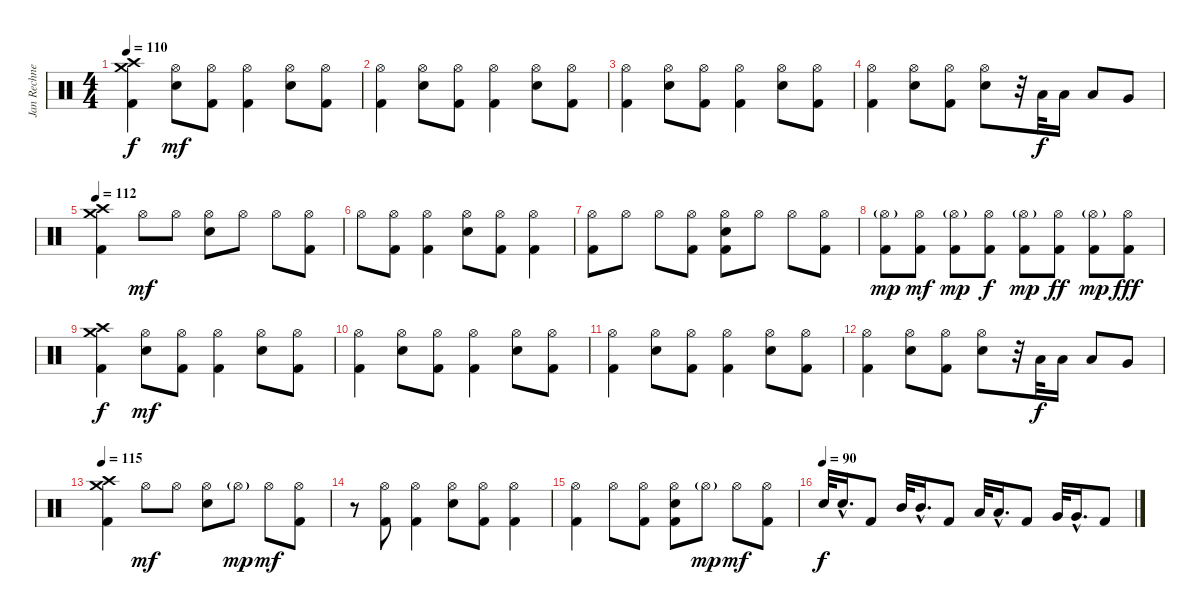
\track ("Jan Rechnerger" "Jan Rechne") {instrument percussion}
\staff {score}
\articulation defaults
\ts (4 4)
\tempo 110
\clef neutral
\ks c
("Crash high (hit)" "Crash medium (hit)" "Kick (hit) 2").4{dy f volume 16} ("Hi-Hat (open)" "Snare (hit) 2").8{dy mf} ("Hi-Hat (open)" "Kick (hit) 2").8 ("Hi-Hat (open)" "Kick (hit) 2").4 ("Hi-Hat (open)" "Snare (hit) 2").8 ("Hi-Hat (open)" "Kick (hit) 2").8 |
("Hi-Hat (open)" "Kick (hit) 2").4 ("Hi-Hat (open)" "Snare (hit) 2").8 ("Hi-Hat (open)" "Kick (hit) 2").8 ("Hi-Hat (open)" "Kick (hit) 2").4 ("Hi-Hat (open)" "Snare (hit) 2").8 ("Hi-Hat (open)" "Kick (hit) 2").8 |
("Hi-Hat (open)" "Kick (hit) 2").4 ("Hi-Hat (open)" "Snare (hit) 2").8 ("Hi-Hat (open)" "Kick (hit) 2").8 ("Hi-Hat (open)" "Kick (hit) 2").4 ("Hi-Hat (open)" "Snare (hit) 2").8 ("Hi-Hat (open)" "Kick (hit) 2").8 |
("Hi-Hat (open)" "Kick (hit) 2").4 ("Hi-Hat (open)" "Snare (hit) 2").8 ("Hi-Hat (open)" "Kick (hit) 2").8 ("Hi-Hat (open)" "Snare (hit) 2").8 r.32 "Low Tom (hit)".32{dy f} "Low Tom (hit)".16 "Low Tom (hit)".8 "Very Low Tom (hit)".8 |
\tempo 112
("Crash high (hit)" "Crash medium (hit)" "Kick (hit) 2").4 "Hi-Hat (open)".8{dy mf} "Hi-Hat (open)".8 ("Hi-Hat (open)" "Snare (hit) 2").8 "Hi-Hat (open)".8 "Hi-Hat (open)".8 ("Hi-Hat (open)" "Kick (hit) 2").8 |
"Hi-Hat (open)".8 ("Hi-Hat (open)" "Kick (hit) 2").8 ("Hi-Hat (open)" "Kick (hit) 2").4 ("Hi-Hat (open)" "Snare (hit) 2").8 ("Hi-Hat (open)" "Kick (hit) 2").8 ("Hi-Hat (open)" "Kick (hit) 2").4 |
("Hi-Hat (open)" "Kick (hit) 2").8 "Hi-Hat (open)".8 "Hi-Hat (open)".8 ("Hi-Hat (open)" "Kick (hit) 2").8 ("Hi-Hat (open)" "Snare (hit) 2" "Kick (hit) 2").8 "Hi-Hat (open)".8 "Hi-Hat (open)".8 ("Hi-Hat (open)" "Kick (hit) 2").8 |
("Hi-Hat (open)"{g} "Kick (hit) 2").8{dy mp} ("Hi-Hat (open)" "Kick (hit) 2").8{dy mf} ("Hi-Hat (open)"{g} "Kick (hit) 2").8{dy mp} ("Hi-Hat (open)" "Kick (hit) 2").8{dy f} ("Hi-Hat (open)"{g} "Kick (hit) 2").8{dy mp} ("Hi-Hat (open)" "Kick (hit) 2").8{dy ff} ("Hi-Hat (open)"{g} "Kick (hit) 2").8{dy mp} ("Hi-Hat (open)" "Kick (hit) 2").8{dy fff} |
("Crash high (hit)" "Crash medium (hit)" "Kick (hit) 2").4{dy f} ("Hi-Hat (open)" "Snare (hit) 2").8{dy mf} ("Hi-Hat (open)" "Kick (hit) 2").8 ("Hi-Hat (open)" "Kick (hit) 2").4 ("Hi-Hat (open)" "Snare (hit) 2").8 ("Hi-Hat (open)" "Kick (hit) 2").8 |
("Hi-Hat (open)" "Kick (hit) 2").4 ("Hi-Hat (open)" "Snare (hit) 2").8 ("Hi-Hat (open)" "Kick (hit) 2").8 ("Hi-Hat (open)" "Kick (hit) 2").4 ("Hi-Hat (open)" "Snare (hit) 2").8 ("Hi-Hat (open)" "Kick (hit) 2").8 |
("Hi-Hat (open)" "Kick (hit) 2").4 ("Hi-Hat (open)" "Snare (hit) 2").8 ("Hi-Hat (open)" "Kick (hit) 2").8 ("Hi-Hat (open)" "Kick (hit) 2").4 ("Hi-Hat (open)" "Snare (hit) 2").8 ("Hi-Hat (open)" "Kick (hit) 2").8 |
("Hi-Hat (open)" "Kick (hit) 2").4 ("Hi-Hat (open)" "Snare (hit) 2").8 ("Hi-Hat (open)" "Kick (hit) 2").8 ("Hi-Hat (open)" "Snare (hit) 2").8 r.32 "Low Tom (hit)".32{dy f} "Low Tom (hit)".16 "Low Tom (hit)".8 "Very Low Tom (hit)".8 |
\tempo 115
("Crash high (hit)" "Crash medium (hit)" "Kick (hit) 2").4 "Hi-Hat (open)".8{dy mf} "Hi-Hat (open)".8 ("Hi-Hat (open)" "Snare (hit) 2").8 "Hi-Hat (open)"{g}.8{dy mp} "Hi-Hat (open)".8{dy mf} ("Hi-Hat (open)" "Kick (hit) 2").8 |
r.8 ("Hi-Hat (open)" "Kick (hit) 2").8 ("Hi-Hat (open)" "Kick (hit) 2").4 ("Hi-Hat (open)" "Snare (hit) 2").8 ("Hi-Hat (open)" "Kick (hit) 2").8 ("Hi-Hat (open)" "Kick (hit) 2").4 |
("Hi-Hat (open)" "Kick (hit) 2").4 "Hi-Hat (open)".8 ("Hi-Hat (open)" "Kick (hit) 2").8 ("Hi-Hat (open)" "Snare (hit) 2" "Kick (hit) 2").8 "Hi-Hat (open)"{g}.8{dy mp} "Hi-Hat (open)".8{dy mf} ("Hi-Hat (open)" "Kick (hit) 2").8 |
\tempo (90)
"Snare (hit) 2".32{dy f} "Snare (hit) 2"{hac}.16{d} "Kick (hit) 2".8 "Mid Tom (hit)".32 "Mid Tom (hit)"{hac}.16{d} "Kick (hit) 2".8 "Low Tom (hit)".32 "Low Tom (hit)"{hac}.16{d} "Kick (hit) 2".8 "Very Low Tom (hit)".32 "Very Low Tom (hit)"{hac}.16{d} "Kick (hit) 2".8
